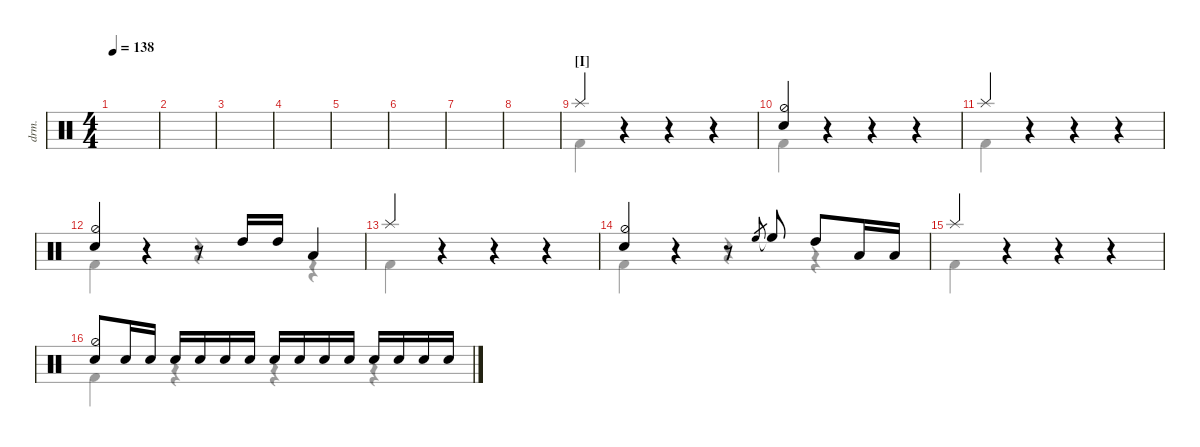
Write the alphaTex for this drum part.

\defaultSystemsLayout 4
\hideDynamics
\bracketExtendMode nobrackets
\track ("Drumkit" "drm.") {instrument percussion}
\staff {score}
\articulation defaults
\voice
\ts (4 4)
\tempo 138
\clef neutral
\ks c
|
|
|
|
|
|
|
|
\section ("I" "")
"Splash (hit)".4 r.4 r.4 r.4 |
("Snare (hit) 2" "Hi-Hat (half)").4 r.4 r.4 r.4 |
"Splash (hit)".4 r.4 r.4 r.4 |
("Snare (hit) 2" "Hi-Hat (half)").4 r.4 r.8 "High Tom (hit)".16 "High Tom (hit)".16 "Low Tom (hit)".4 |
"Splash (hit)".4 r.4 r.4 r.4 |
("Snare (hit) 2" "Hi-Hat (half)").4 r.4 r.8 "High Floor Tom (hit)".8{gr} "High Floor Tom (hit)"{t}.8 "High Tom (hit)".8 "Low Tom (hit)".16 "Low Tom (hit)".16 |
"Splash (hit)".4 r.4 r.4 r.4 |
("Snare (hit) 2" "Hi-Hat (half)").8 "Snare (hit) 2".16 "Snare (hit) 2".16 "Snare (hit) 2".16 "Snare (hit) 2".16 "Snare (hit) 2".16 "Snare (hit) 2".16 "Snare (hit) 2".16 "Snare (hit) 2".16 "Snare (hit) 2".16 "Snare (hit) 2".16 "Snare (hit) 2".16 "Snare (hit) 2".16 "Snare (hit) 2".16 "Snare (hit) 2".16
\voice
\clef neutral
\ottava regular
\simile none
\ks c
|
|
|
|
|
|
|
|
|
|
|
|
|
|
|
\voice
\clef neutral
\ottava regular
\simile none
\ks c
|
|
|
|
|
|
|
|
"Kick (hit) 2".4 r.4 r.4 r.4 |
"Kick (hit) 2".4 r.4 r.4 r.4 |
"Kick (hit) 2".4 r.4 r.4 r.4 |
"Kick (hit) 2".4 r.4 r.4 r.4 |
"Kick (hit) 2".4 r.4 r.4 r.4 |
"Kick (hit) 2".4 r.4 r.4 r.4 |
"Kick (hit) 2".4 r.4 r.4 r.4 |
"Kick (hit) 2".4 r.4 r.4 r.4
